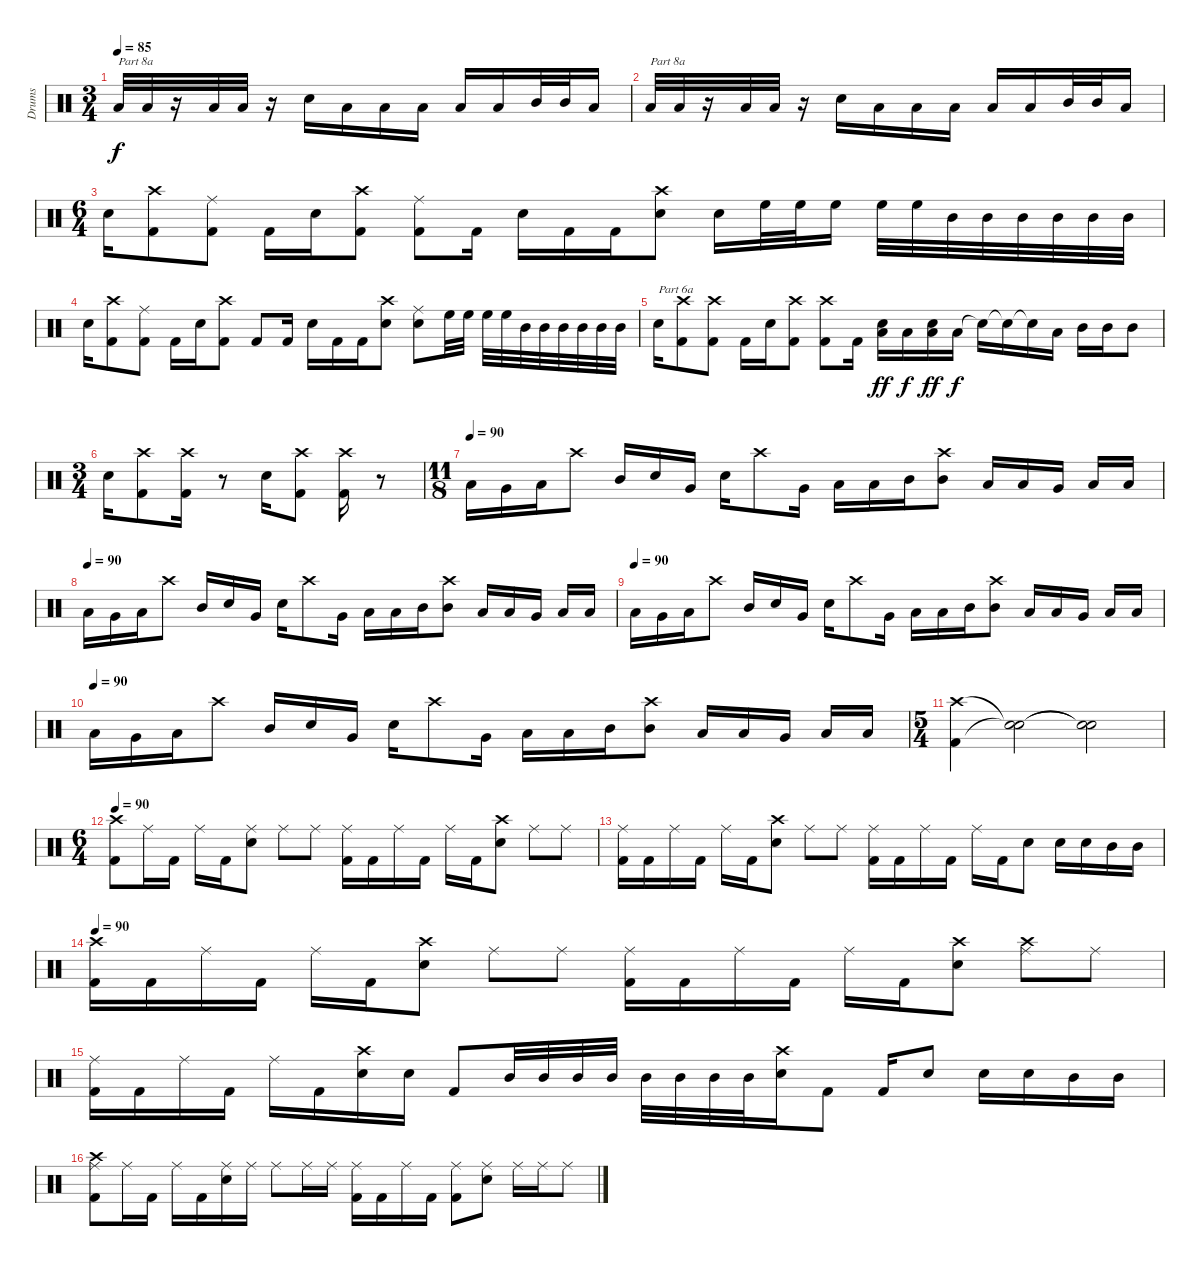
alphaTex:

\track ("Drums" "Drums") {instrument percussion}
\staff {score}
\articulation defaults
\ts (3 4)
\tempo 85
\clef neutral
\ks c "Low Floor Tom (hit)".32{txt "Part 8a" dy f} "Low Floor Tom (hit)".32
r.16 "Low Floor Tom (hit)".32 "Low Floor Tom (hit)".32 r.16 "Snare (hit) 2".16 "Low Floor Tom (hit)".16 "Low Floor Tom (hit)".16 "Low Floor Tom (hit)".16 "Low Floor Tom (hit)".16 "Low Floor Tom (hit)".16 "Mid Tom (hit)".32 "Mid Tom (hit)".32 "Low Floor Tom (hit)".16 |
"Low Floor Tom (hit)".32{txt "Part 8a"} "Low Floor Tom (hit)".32 r.16 "Low Floor Tom (hit)".32 "Low Floor Tom (hit)".32 r.16 "Snare (hit) 2".16 "Low Floor Tom (hit)".16 "Low Floor Tom (hit)".16 "Low Floor Tom (hit)".16 "Low Floor Tom (hit)".16 "Low Floor Tom (hit)".16 "Mid Tom (hit)".32 "Mid Tom (hit)".32 "Low Floor Tom (hit)".16 |
\ts (6 4)
"Snare (hit) 2".16 ("Crash high (hit)" "Kick (hit) 2").8 ("Ride (middle)" "Kick (hit) 2").8 "Kick (hit) 2".16 "Snare (hit) 2".16 ("Crash high (hit)" "Kick (hit) 2").8 ("Ride (middle)" "Kick (hit) 2").8 "Kick (hit) 2".16 "Snare (hit) 2".16 "Kick (hit) 2".16 "Kick (hit) 2".16 ("Crash high (hit)" "Snare (hit) 2").8 "Snare (hit) 2".16 "High Floor Tom (hit)".32 "High Floor Tom (hit)".32 "High Floor Tom (hit)".16 "High Floor Tom (hit)".32 "High Floor Tom (hit)".32 "Mid Tom (hit)".32 "Mid Tom (hit)".32 "Mid Tom (hit)".32 "Mid Tom (hit)".32 "Mid Tom (hit)".32 "Mid Tom (hit)".32 |
"Snare (hit) 2".16 ("Crash high (hit)" "Kick (hit) 2").8 ("Ride (middle)" "Kick (hit) 2").8 "Kick (hit) 2".16 "Snare (hit) 2".16 ("Crash high (hit)" "Kick (hit) 2").8 "Kick (hit) 2".8 "Kick (hit) 2".16 "Snare (hit) 2".16 "Kick (hit) 2".16 "Kick (hit) 2".16 ("Crash high (hit)" "Snare (hit) 2").8 ("Ride (middle)" "Snare (hit) 2").8 "High Floor Tom (hit)".32 "High Floor Tom (hit)".32 "High Floor Tom (hit)".32 "High Floor Tom (hit)".32 "Mid Tom (hit)".32 "Mid Tom (hit)".32 "Mid Tom (hit)".32 "Mid Tom (hit)".32 "Mid Tom (hit)".32 "Mid Tom (hit)".32 |
"Snare (hit) 2".16{txt "Part 6a"} ("Crash high (hit)" "Kick (hit) 2").8 ("Crash high (hit)" "Kick (hit) 2").8 "Kick (hit) 2".16 "Snare (hit) 2".16 ("Crash high (hit)" "Kick (hit) 2").8 ("Crash high (hit)" "Kick (hit) 2").8 "Kick (hit) 2".16 ("Low Floor Tom (hit)" "Snare (hit) 2").16{dy ff} "Low Floor Tom (hit)".16{dy f} ("Low Floor Tom (hit)" "Snare (hit) 2").16{dy ff} "Low Floor Tom (hit)".16{dy f} "Snare (hit)"{t}.16 "Snare (hit)"{t}.16 "Snare (hit)"{t}.16 "Low Floor Tom (hit)".16 "Mid Tom (hit)".16 "Mid Tom (hit)".16 "Mid Tom (hit)".8 |
\ts (3 4)
"Snare (hit) 2".16 ("Crash high (hit)" "Kick (hit) 2").8 ("Crash high (hit)" "Kick (hit) 2").16 r.8 "Snare (hit) 2".16 ("Crash high (hit)" "Kick (hit) 2").8 ("Crash high (hit)" "Kick (hit) 2").16 r.8 |
\ts (11 8)
\tempo (90)
"Low Floor Tom (hit)".16 "Very Low Tom (hit)".16 "Low Tom (hit)".16 "Crash high (hit)".8 "Mid Tom (hit)".16 "Snare (hit) 2".16 "Very Low Tom (hit)".16 "Snare (hit) 2".16 "Crash high (hit)".8 "Very Low Tom (hit)".16 "Low Tom (hit)".16 "Low Floor Tom (hit)".16 "Mid Tom (hit)".16 ("Crash high (hit)" "Mid Tom (hit)").8 "Low Tom (hit)".16 "Low Tom (hit)".16 "Very Low Tom (hit)".16 "Low Floor Tom (hit)".16 "Low Floor Tom (hit)".16 |
\tempo (90)
"Low Floor Tom (hit)".16 "Very Low Tom (hit)".16 "Low Tom (hit)".16 "Crash high (hit)".8 "Mid Tom (hit)".16 "Snare (hit) 2".16 "Very Low Tom (hit)".16 "Snare (hit) 2".16 "Crash high (hit)".8 "Very Low Tom (hit)".16 "Low Tom (hit)".16 "Low Floor Tom (hit)".16 "Mid Tom (hit)".16 ("Crash high (hit)" "Mid Tom (hit)").8 "Low Tom (hit)".16 "Low Tom (hit)".16 "Very Low Tom (hit)".16 "Low Floor Tom (hit)".16 "Low Floor Tom (hit)".16 |
\tempo (90)
"Low Floor Tom (hit)".16 "Very Low Tom (hit)".16 "Low Tom (hit)".16 "Crash high (hit)".8 "Mid Tom (hit)".16 "Snare (hit) 2".16 "Very Low Tom (hit)".16 "Snare (hit) 2".16 "Crash high (hit)".8 "Very Low Tom (hit)".16 "Low Tom (hit)".16 "Low Floor Tom (hit)".16 "Mid Tom (hit)".16 ("Crash high (hit)" "Mid Tom (hit)").8 "Low Tom (hit)".16 "Low Tom (hit)".16 "Very Low Tom (hit)".16 "Low Floor Tom (hit)".16 "Low Floor Tom (hit)".16 |
\tempo (90)
"Low Floor Tom (hit)".16 "Very Low Tom (hit)".16 "Low Tom (hit)".16 "Crash high (hit)".8 "Mid Tom (hit)".16 "Snare (hit) 2".16 "Very Low Tom (hit)".16 "Snare (hit) 2".16 "Crash high (hit)".8 "Very Low Tom (hit)".16 "Low Tom (hit)".16 "Low Floor Tom (hit)".16 "Mid Tom (hit)".16 ("Crash high (hit)" "Mid Tom (hit)").8 "Low Tom (hit)".16 "Low Tom (hit)".16 "Very Low Tom (hit)".16 "Low Floor Tom (hit)".16 "Low Floor Tom (hit)".16 |
\ts (5 4)
("Crash high (hit)" "Kick (hit) 2").4 ("Snare (hit)"{t} "Snare (hit)"{t}).2 ("Snare (hit)"{t} "Snare (hit)"{t}).2 |
\ts (6 4)
\tempo 90
("Crash high (hit)" "Kick (hit) 2").8 "Ride (middle)".16 "Kick (hit) 2".16 "Ride (middle)".16 "Kick (hit) 2".16 ("Ride (middle)" "Snare (hit) 2").8 "Ride (middle)".8 "Ride (middle)".8 ("Ride (middle)" "Kick (hit) 2").16 "Kick (hit) 2".16 "Ride (middle)".16 "Kick (hit) 2".16 "Ride (middle)".16 "Kick (hit) 2".16 ("Crash high (hit)" "Snare (hit) 2").8 "Ride (middle)".8 "Ride (middle)".8 |
("Ride (middle)" "Kick (hit) 2").16 "Kick (hit) 2".16 "Ride (middle)".16 "Kick (hit) 2".16 "Ride (middle)".16 "Kick (hit) 2".16 ("Crash high (hit)" "Snare (hit) 2").8 "Ride (middle)".8 "Ride (middle)".8 ("Ride (middle)" "Kick (hit) 2").16 "Kick (hit) 2".16 "Ride (middle)".16 "Kick (hit) 2".16 "Ride (middle)".16 "Kick (hit) 2".16 "Snare (hit) 2".8 "Snare (hit) 2".16 "Snare (hit) 2".16 "Mid Tom (hit)".16 "Mid Tom (hit)".16 |
\tempo 90
("Crash high (hit)" "Kick (hit) 2").16 "Kick (hit) 2".16 "Ride (middle)".16 "Kick (hit) 2".16 "Ride (middle)".16 "Kick (hit) 2".16 ("Crash high (hit)" "Snare (hit) 2").8 "Ride (middle)".8 "Ride (middle)".8 ("Ride (middle)" "Kick (hit) 2").16 "Kick (hit) 2".16 "Ride (middle)".16 "Kick (hit) 2".16 "Ride (middle)".16 "Kick (hit) 2".16 ("Crash high (hit)" "Snare (hit) 2").8 ("Crash high (hit)" "Ride (middle)").8 "Ride (middle)".8 |
("Ride (middle)" "Kick (hit) 2").16 "Kick (hit) 2".16 "Ride (middle)".16 "Kick (hit) 2".16 "Ride (middle)".16 "Kick (hit) 2".16 ("Crash high (hit)" "Snare (hit) 2").16 "Snare (hit) 2".16 "Kick (hit) 2".8 "Mid Tom (hit)".32 "Mid Tom (hit)".32 "Mid Tom (hit)".32 "Mid Tom (hit)".32 "Mid Tom (hit)".32 "Mid Tom (hit)".32 "Mid Tom (hit)".32 "Mid Tom (hit)".32 ("Crash high (hit)" "Snare (hit) 2").16 "Kick (hit) 2".8 "Kick (hit) 2".16 "Snare (hit) 2".8 "Snare (hit) 2".16 "Snare (hit) 2".16 "Mid Tom (hit)".16 "Mid Tom (hit)".16 |
("Crash high (hit)" "Ride (middle)" "Kick (hit) 2").8 "Ride (middle)".16 "Kick (hit) 2".16 "Ride (middle)".16 "Kick (hit) 2".16 ("Ride (middle)" "Snare (hit) 2").16 "Ride (middle)".16 "Ride (middle)".8 "Ride (middle)".16 "Ride (middle)".16 ("Ride (middle)" "Kick (hit) 2").16 "Kick (hit) 2".16 "Ride (middle)".16 "Kick (hit) 2".16 ("Ride (middle)" "Kick (hit) 2").8 ("Ride (middle)" "Snare (hit) 2").8 "Ride (middle)".16 "Ride (middle)".16 "Ride (middle)".8
